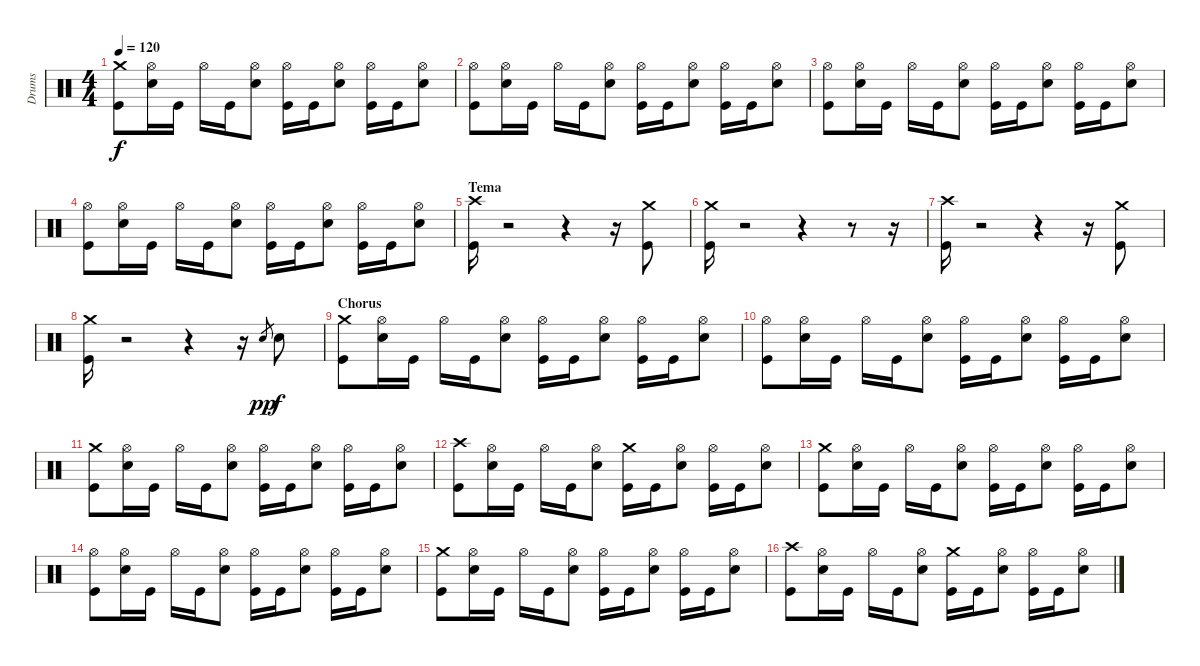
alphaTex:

\track ("Drums" "Drums") {instrument percussion}
\staff {score}
\articulation defaults
\ts (4 4)
\tempo 120
\clef neutral
\ks c
("Crash medium (hit)" "Kick (hit)").8{dy f} ("Hi-Hat (open)" "Snare (hit) 2").16 "Kick (hit)".16 "Hi-Hat (open)".16 "Kick (hit)".16 ("Hi-Hat (open)" "Snare (hit) 2").8 ("Hi-Hat (open)" "Kick (hit)").16 "Kick (hit)".16 ("Hi-Hat (open)" "Snare (hit) 2").8 ("Hi-Hat (open)" "Kick (hit)").16 "Kick (hit)".16 ("Hi-Hat (open)" "Snare (hit) 2").8 |
("Hi-Hat (open)" "Kick (hit)").8 ("Hi-Hat (open)" "Snare (hit) 2").16 "Kick (hit)".16 "Hi-Hat (open)".16 "Kick (hit)".16 ("Hi-Hat (open)" "Snare (hit) 2").8 ("Hi-Hat (open)" "Kick (hit)").16 "Kick (hit)".16 ("Hi-Hat (open)" "Snare (hit) 2").8 ("Hi-Hat (open)" "Kick (hit)").16 "Kick (hit)".16 ("Hi-Hat (open)" "Snare (hit) 2").8 |
("Hi-Hat (open)" "Kick (hit)").8 ("Hi-Hat (open)" "Snare (hit) 2").16 "Kick (hit)".16 "Hi-Hat (open)".16 "Kick (hit)".16 ("Hi-Hat (open)" "Snare (hit) 2").8 ("Hi-Hat (open)" "Kick (hit)").16 "Kick (hit)".16 ("Hi-Hat (open)" "Snare (hit) 2").8 ("Hi-Hat (open)" "Kick (hit)").16 "Kick (hit)".16 ("Hi-Hat (open)" "Snare (hit) 2").8 |
("Hi-Hat (open)" "Kick (hit)").8 ("Hi-Hat (open)" "Snare (hit) 2").16 "Kick (hit)".16 "Hi-Hat (open)".16 "Kick (hit)".16 ("Hi-Hat (open)" "Snare (hit) 2").8 ("Hi-Hat (open)" "Kick (hit)").16 "Kick (hit)".16 ("Hi-Hat (open)" "Snare (hit) 2").8 ("Hi-Hat (open)" "Kick (hit)").16 "Kick (hit)".16 ("Hi-Hat (open)" "Snare (hit) 2").8 |
\section ("" "Tema")
("Crash high (hit)" "Kick (hit)").16{volume 15} r.2 r.4 r.16 ("Crash medium (hit)" "Kick (hit)").8 |
("Crash medium (hit)" "Kick (hit)").16 r.2 r.4 r.8 r.16 |
("Crash high (hit)" "Kick (hit)").16 r.2 r.4 r.16 ("Crash medium (hit)" "Kick (hit)").8 |
("Crash medium (hit)" "Kick (hit)").16 r.2 r.4 r.16 "Snare (hit) 2".8{gr dy pp} "Snare (hit) 2".8{dy f} |
\section ("" "Chorus")
("Crash medium (hit)" "Kick (hit)").8 ("Hi-Hat (open)" "Snare (hit) 2").16 "Kick (hit)".16 "Hi-Hat (open)".16 "Kick (hit)".16 ("Hi-Hat (open)" "Snare (hit) 2").8 ("Hi-Hat (open)" "Kick (hit)").16 "Kick (hit)".16 ("Hi-Hat (open)" "Snare (hit) 2").8 ("Hi-Hat (open)" "Kick (hit)").16 "Kick (hit)".16 ("Hi-Hat (open)" "Snare (hit) 2").8 |
("Hi-Hat (open)" "Kick (hit)").8 ("Hi-Hat (open)" "Snare (hit) 2").16 "Kick (hit)".16 "Hi-Hat (open)".16 "Kick (hit)".16 ("Hi-Hat (open)" "Snare (hit) 2").8 ("Hi-Hat (open)" "Kick (hit)").16 "Kick (hit)".16 ("Hi-Hat (open)" "Snare (hit) 2").8 ("Hi-Hat (open)" "Kick (hit)").16 "Kick (hit)".16 ("Hi-Hat (open)" "Snare (hit) 2").8 |
("Crash medium (hit)" "Kick (hit)").8 ("Hi-Hat (open)" "Snare (hit) 2").16 "Kick (hit)".16 "Hi-Hat (open)".16 "Kick (hit)".16 ("Hi-Hat (open)" "Snare (hit) 2").8 ("Hi-Hat (open)" "Kick (hit)").16 "Kick (hit)".16 ("Hi-Hat (open)" "Snare (hit) 2").8 ("Hi-Hat (open)" "Kick (hit)").16 "Kick (hit)".16 ("Hi-Hat (open)" "Snare (hit) 2").8 |
("Crash high (hit)" "Kick (hit)").8 ("Hi-Hat (open)" "Snare (hit) 2").16 "Kick (hit)".16 "Hi-Hat (open)".16 "Kick (hit)".16 ("Hi-Hat (open)" "Snare (hit) 2").8 ("Crash medium (hit)" "Kick (hit)").16 "Kick (hit)".16 ("Hi-Hat (open)" "Snare (hit) 2").8 ("Hi-Hat (open)" "Kick (hit)").16 "Kick (hit)".16 ("Hi-Hat (open)" "Snare (hit) 2").8 |
("Crash medium (hit)" "Kick (hit)").8 ("Hi-Hat (open)" "Snare (hit) 2").16 "Kick (hit)".16 "Hi-Hat (open)".16 "Kick (hit)".16 ("Hi-Hat (open)" "Snare (hit) 2").8 ("Hi-Hat (open)" "Kick (hit)").16 "Kick (hit)".16 ("Hi-Hat (open)" "Snare (hit) 2").8 ("Hi-Hat (open)" "Kick (hit)").16 "Kick (hit)".16 ("Hi-Hat (open)" "Snare (hit) 2").8 |
("Hi-Hat (open)" "Kick (hit)").8 ("Hi-Hat (open)" "Snare (hit) 2").16 "Kick (hit)".16 "Hi-Hat (open)".16 "Kick (hit)".16 ("Hi-Hat (open)" "Snare (hit) 2").8 ("Hi-Hat (open)" "Kick (hit)").16 "Kick (hit)".16 ("Hi-Hat (open)" "Snare (hit) 2").8 ("Hi-Hat (open)" "Kick (hit)").16 "Kick (hit)".16 ("Hi-Hat (open)" "Snare (hit) 2").8 |
("Crash medium (hit)" "Kick (hit)").8 ("Hi-Hat (open)" "Snare (hit) 2").16 "Kick (hit)".16 "Hi-Hat (open)".16 "Kick (hit)".16 ("Hi-Hat (open)" "Snare (hit) 2").8 ("Hi-Hat (open)" "Kick (hit)").16 "Kick (hit)".16 ("Hi-Hat (open)" "Snare (hit) 2").8 ("Hi-Hat (open)" "Kick (hit)").16 "Kick (hit)".16 ("Hi-Hat (open)" "Snare (hit) 2").8 |
("Crash high (hit)" "Kick (hit)").8 ("Hi-Hat (open)" "Snare (hit) 2").16 "Kick (hit)".16 "Hi-Hat (open)".16 "Kick (hit)".16 ("Hi-Hat (open)" "Snare (hit) 2").8 ("Crash medium (hit)" "Kick (hit)").16 "Kick (hit)".16 ("Hi-Hat (open)" "Snare (hit) 2").8 ("Hi-Hat (open)" "Kick (hit)").16 "Kick (hit)".16 ("Hi-Hat (open)" "Snare (hit) 2").8
